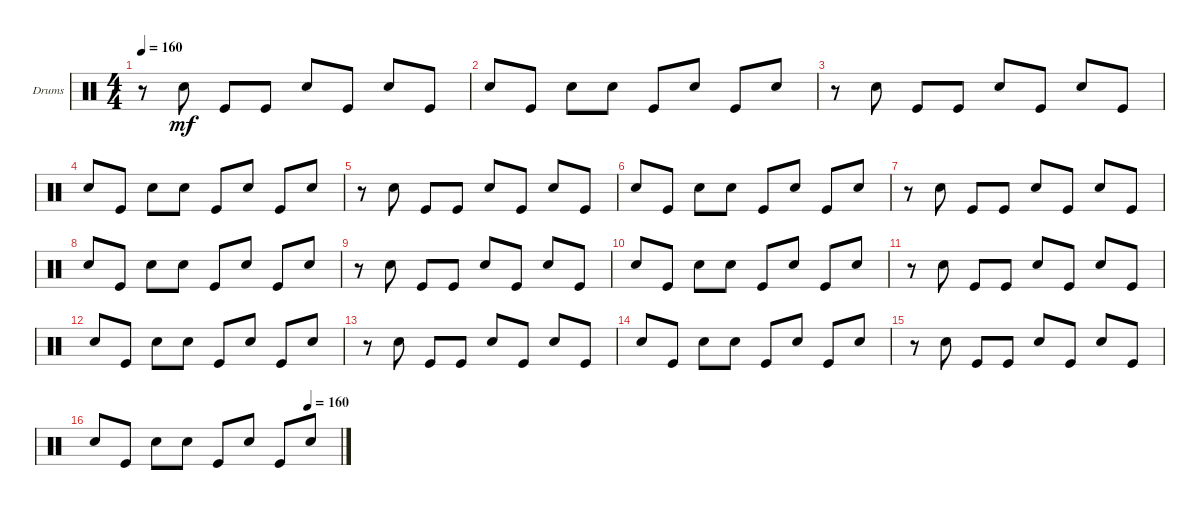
\defaultSystemsLayout 4
\bracketExtendMode groupsimilarinstruments
\firstSystemTrackNameOrientation horizontal
\otherSystemsTrackNameOrientation horizontal
\track ("Drumkit" "Drums") {instrument percussion}
\staff {score}
\articulation defaults
\ts (4 4)
\tempo 160
\clef neutral
\ks c
r.8{dy mf} "Snare (hit) 2".8 "Kick (hit)".8 "Kick (hit)".8 "Snare (hit) 2".8 "Kick (hit)".8 "Snare (hit) 2".8 "Kick (hit)".8 |
"Snare (hit) 2".8 "Kick (hit)".8 "Snare (hit) 2".8 "Snare (hit) 2".8 "Kick (hit)".8 "Snare (hit) 2".8 "Kick (hit)".8 "Snare (hit) 2".8 |
r.8 "Snare (hit) 2".8 "Kick (hit)".8 "Kick (hit)".8 "Snare (hit) 2".8 "Kick (hit)".8 "Snare (hit) 2".8 "Kick (hit)".8 |
"Snare (hit) 2".8 "Kick (hit)".8 "Snare (hit) 2".8 "Snare (hit) 2".8 "Kick (hit)".8 "Snare (hit) 2".8 "Kick (hit)".8 "Snare (hit) 2".8 |
r.8 "Snare (hit) 2".8 "Kick (hit)".8 "Kick (hit)".8 "Snare (hit) 2".8 "Kick (hit)".8 "Snare (hit) 2".8 "Kick (hit)".8 |
"Snare (hit) 2".8 "Kick (hit)".8 "Snare (hit) 2".8 "Snare (hit) 2".8 "Kick (hit)".8 "Snare (hit) 2".8 "Kick (hit)".8 "Snare (hit) 2".8 |
r.8 "Snare (hit) 2".8 "Kick (hit)".8 "Kick (hit)".8 "Snare (hit) 2".8 "Kick (hit)".8 "Snare (hit) 2".8 "Kick (hit)".8 |
"Snare (hit) 2".8 "Kick (hit)".8 "Snare (hit) 2".8 "Snare (hit) 2".8 "Kick (hit)".8 "Snare (hit) 2".8 "Kick (hit)".8 "Snare (hit) 2".8 |
r.8 "Snare (hit) 2".8 "Kick (hit)".8 "Kick (hit)".8 "Snare (hit) 2".8 "Kick (hit)".8 "Snare (hit) 2".8 "Kick (hit)".8 |
"Snare (hit) 2".8 "Kick (hit)".8 "Snare (hit) 2".8 "Snare (hit) 2".8 "Kick (hit)".8 "Snare (hit) 2".8 "Kick (hit)".8 "Snare (hit) 2".8 |
r.8 "Snare (hit) 2".8 "Kick (hit)".8 "Kick (hit)".8 "Snare (hit) 2".8 "Kick (hit)".8 "Snare (hit) 2".8 "Kick (hit)".8 |
"Snare (hit) 2".8 "Kick (hit)".8 "Snare (hit) 2".8 "Snare (hit) 2".8 "Kick (hit)".8 "Snare (hit) 2".8 "Kick (hit)".8 "Snare (hit) 2".8 |
r.8 "Snare (hit) 2".8 "Kick (hit)".8 "Kick (hit)".8 "Snare (hit) 2".8 "Kick (hit)".8 "Snare (hit) 2".8 "Kick (hit)".8 |
"Snare (hit) 2".8 "Kick (hit)".8 "Snare (hit) 2".8 "Snare (hit) 2".8 "Kick (hit)".8 "Snare (hit) 2".8 "Kick (hit)".8 "Snare (hit) 2".8 |
r.8 "Snare (hit) 2".8 "Kick (hit)".8 "Kick (hit)".8 "Snare (hit) 2".8 "Kick (hit)".8 "Snare (hit) 2".8 "Kick (hit)".8 |
\tempo (160 0.86875)
"Snare (hit) 2".8 "Kick (hit)".8 "Snare (hit) 2".8 "Snare (hit) 2".8 "Kick (hit)".8 "Snare (hit) 2".8 "Kick (hit)".8 "Snare (hit) 2".8
